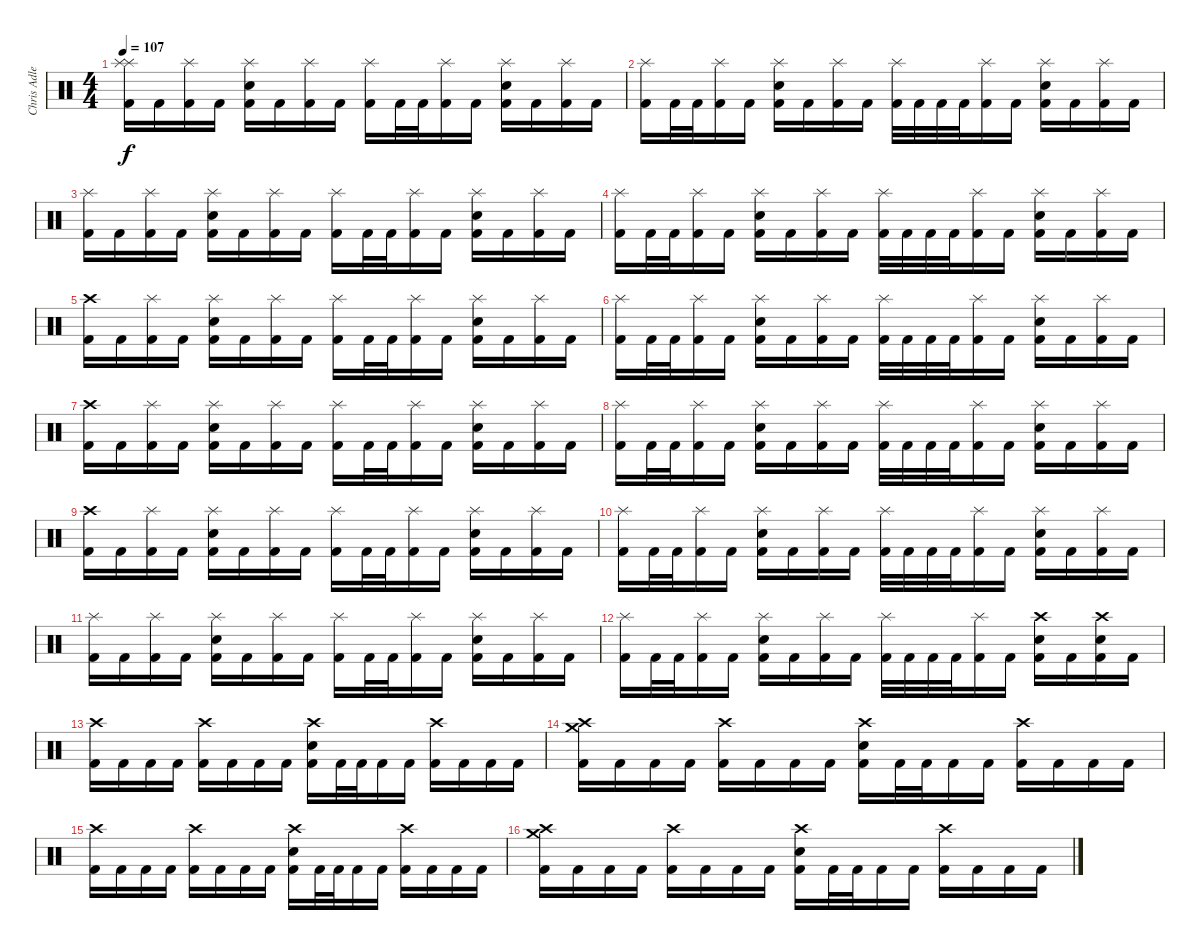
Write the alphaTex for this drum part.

\track ("Chris Adler" "Chris Adle") {instrument percussion}
\staff {score}
\articulation defaults
\ts (4 4)
\tempo 107
\clef neutral
\ks c
("Kick (hit) 2" "Splash (hit)" "Splash (hit)").16{dy f} "Kick (hit) 2".16 ("Kick (hit) 2" "Splash (hit)").16 "Kick (hit) 2".16 ("Kick (hit) 2" "Electric Snare (hit)" "Splash (hit)").16 "Kick (hit) 2".16 ("Kick (hit) 2" "Splash (hit)").16 "Kick (hit) 2".16 ("Kick (hit) 2" "Splash (hit)").16 "Kick (hit) 2".32 "Kick (hit) 2".32 ("Kick (hit) 2" "Splash (hit)").16 "Kick (hit) 2".16 ("Kick (hit) 2" "Electric Snare (hit)" "Splash (hit)").16 "Kick (hit) 2".16 ("Kick (hit) 2" "Splash (hit)").16 "Kick (hit) 2".16 |
("Kick (hit) 2" "Splash (hit)").16 "Kick (hit) 2".32 "Kick (hit) 2".32 ("Kick (hit) 2" "Splash (hit)").16 "Kick (hit) 2".16 ("Kick (hit) 2" "Electric Snare (hit)" "Splash (hit)").16 "Kick (hit) 2".16 ("Kick (hit) 2" "Splash (hit)").16 "Kick (hit) 2".16 ("Kick (hit) 2" "Splash (hit)").32 "Kick (hit) 2".32 "Kick (hit) 2".32 "Kick (hit) 2".32 ("Kick (hit) 2" "Splash (hit)").16 "Kick (hit) 2".16 ("Kick (hit) 2" "Electric Snare (hit)" "Splash (hit)").16 "Kick (hit) 2".16 ("Kick (hit) 2" "Splash (hit)").16 "Kick (hit) 2".16 |
("Kick (hit) 2" "Splash (hit)").16 "Kick (hit) 2".16 ("Kick (hit) 2" "Splash (hit)").16 "Kick (hit) 2".16 ("Kick (hit) 2" "Electric Snare (hit)" "Splash (hit)").16 "Kick (hit) 2".16 ("Kick (hit) 2" "Splash (hit)").16 "Kick (hit) 2".16 ("Kick (hit) 2" "Splash (hit)").16 "Kick (hit) 2".32 "Kick (hit) 2".32 ("Kick (hit) 2" "Splash (hit)").16 "Kick (hit) 2".16 ("Kick (hit) 2" "Electric Snare (hit)" "Splash (hit)").16 "Kick (hit) 2".16 ("Kick (hit) 2" "Splash (hit)").16 "Kick (hit) 2".16 |
("Kick (hit) 2" "Splash (hit)").16 "Kick (hit) 2".32 "Kick (hit) 2".32 ("Kick (hit) 2" "Splash (hit)").16 "Kick (hit) 2".16 ("Kick (hit) 2" "Electric Snare (hit)" "Splash (hit)").16 "Kick (hit) 2".16 ("Kick (hit) 2" "Splash (hit)").16 "Kick (hit) 2".16 ("Kick (hit) 2" "Splash (hit)").32 "Kick (hit) 2".32 "Kick (hit) 2".32 "Kick (hit) 2".32 ("Kick (hit) 2" "Splash (hit)").16 "Kick (hit) 2".16 ("Kick (hit) 2" "Electric Snare (hit)" "Splash (hit)").16 "Kick (hit) 2".16 ("Kick (hit) 2" "Splash (hit)").16 "Kick (hit) 2".16 |
("Kick (hit) 2" "Crash high (hit)").16 "Kick (hit) 2".16 ("Kick (hit) 2" "Splash (hit)").16 "Kick (hit) 2".16 ("Kick (hit) 2" "Electric Snare (hit)" "Splash (hit)").16 "Kick (hit) 2".16 ("Kick (hit) 2" "Splash (hit)").16 "Kick (hit) 2".16 ("Kick (hit) 2" "Splash (hit)").16 "Kick (hit) 2".32 "Kick (hit) 2".32 ("Kick (hit) 2" "Splash (hit)").16 "Kick (hit) 2".16 ("Kick (hit) 2" "Electric Snare (hit)" "Splash (hit)").16 "Kick (hit) 2".16 ("Kick (hit) 2" "Splash (hit)").16 "Kick (hit) 2".16 |
("Kick (hit) 2" "Splash (hit)").16 "Kick (hit) 2".32 "Kick (hit) 2".32 ("Kick (hit) 2" "Splash (hit)").16 "Kick (hit) 2".16 ("Kick (hit) 2" "Electric Snare (hit)" "Splash (hit)").16 "Kick (hit) 2".16 ("Kick (hit) 2" "Splash (hit)").16 "Kick (hit) 2".16 ("Kick (hit) 2" "Splash (hit)").32 "Kick (hit) 2".32 "Kick (hit) 2".32 "Kick (hit) 2".32 ("Kick (hit) 2" "Splash (hit)").16 "Kick (hit) 2".16 ("Kick (hit) 2" "Electric Snare (hit)" "Splash (hit)").16 "Kick (hit) 2".16 ("Kick (hit) 2" "Splash (hit)").16 "Kick (hit) 2".16 |
("Kick (hit) 2" "Crash high (hit)").16 "Kick (hit) 2".16 ("Kick (hit) 2" "Splash (hit)").16 "Kick (hit) 2".16 ("Kick (hit) 2" "Electric Snare (hit)" "Splash (hit)").16 "Kick (hit) 2".16 ("Kick (hit) 2" "Splash (hit)").16 "Kick (hit) 2".16 ("Kick (hit) 2" "Splash (hit)").16 "Kick (hit) 2".32 "Kick (hit) 2".32 ("Kick (hit) 2" "Splash (hit)").16 "Kick (hit) 2".16 ("Kick (hit) 2" "Electric Snare (hit)" "Splash (hit)").16 "Kick (hit) 2".16 ("Kick (hit) 2" "Splash (hit)").16 "Kick (hit) 2".16 |
("Kick (hit) 2" "Splash (hit)").16 "Kick (hit) 2".32 "Kick (hit) 2".32 ("Kick (hit) 2" "Splash (hit)").16 "Kick (hit) 2".16 ("Kick (hit) 2" "Electric Snare (hit)" "Splash (hit)").16 "Kick (hit) 2".16 ("Kick (hit) 2" "Splash (hit)").16 "Kick (hit) 2".16 ("Kick (hit) 2" "Splash (hit)").32 "Kick (hit) 2".32 "Kick (hit) 2".32 "Kick (hit) 2".32 ("Kick (hit) 2" "Splash (hit)").16 "Kick (hit) 2".16 ("Kick (hit) 2" "Electric Snare (hit)" "Splash (hit)").16 "Kick (hit) 2".16 ("Kick (hit) 2" "Splash (hit)").16 "Kick (hit) 2".16 |
("Kick (hit) 2" "Crash high (hit)").16 "Kick (hit) 2".16 ("Kick (hit) 2" "Splash (hit)").16 "Kick (hit) 2".16 ("Kick (hit) 2" "Electric Snare (hit)" "Splash (hit)").16 "Kick (hit) 2".16 ("Kick (hit) 2" "Splash (hit)").16 "Kick (hit) 2".16 ("Kick (hit) 2" "Splash (hit)").16 "Kick (hit) 2".32 "Kick (hit) 2".32 ("Kick (hit) 2" "Splash (hit)").16 "Kick (hit) 2".16 ("Kick (hit) 2" "Electric Snare (hit)" "Splash (hit)").16 "Kick (hit) 2".16 ("Kick (hit) 2" "Splash (hit)").16 "Kick (hit) 2".16 |
("Kick (hit) 2" "Splash (hit)").16 "Kick (hit) 2".32 "Kick (hit) 2".32 ("Kick (hit) 2" "Splash (hit)").16 "Kick (hit) 2".16 ("Kick (hit) 2" "Electric Snare (hit)" "Splash (hit)").16 "Kick (hit) 2".16 ("Kick (hit) 2" "Splash (hit)").16 "Kick (hit) 2".16 ("Kick (hit) 2" "Splash (hit)").32 "Kick (hit) 2".32 "Kick (hit) 2".32 "Kick (hit) 2".32 ("Kick (hit) 2" "Splash (hit)").16 "Kick (hit) 2".16 ("Kick (hit) 2" "Electric Snare (hit)" "Splash (hit)").16 "Kick (hit) 2".16 ("Kick (hit) 2" "Splash (hit)").16 "Kick (hit) 2".16 |
("Kick (hit) 2" "Splash (hit)").16 "Kick (hit) 2".16 ("Kick (hit) 2" "Splash (hit)").16 "Kick (hit) 2".16 ("Kick (hit) 2" "Electric Snare (hit)" "Splash (hit)").16 "Kick (hit) 2".16 ("Kick (hit) 2" "Splash (hit)").16 "Kick (hit) 2".16 ("Kick (hit) 2" "Splash (hit)").16 "Kick (hit) 2".32 "Kick (hit) 2".32 ("Kick (hit) 2" "Splash (hit)").16 "Kick (hit) 2".16 ("Kick (hit) 2" "Electric Snare (hit)" "Splash (hit)").16 "Kick (hit) 2".16 ("Kick (hit) 2" "Splash (hit)").16 "Kick (hit) 2".16 |
("Kick (hit) 2" "Splash (hit)").16 "Kick (hit) 2".32 "Kick (hit) 2".32 ("Kick (hit) 2" "Splash (hit)").16 "Kick (hit) 2".16 ("Kick (hit) 2" "Electric Snare (hit)" "Splash (hit)").16 "Kick (hit) 2".16 ("Kick (hit) 2" "Splash (hit)").16 "Kick (hit) 2".16 ("Kick (hit) 2" "Splash (hit)").32 "Kick (hit) 2".32 "Kick (hit) 2".32 "Kick (hit) 2".32 ("Kick (hit) 2" "Splash (hit)").16 "Kick (hit) 2".16 ("Kick (hit) 2" "Electric Snare (hit)" "Crash high (hit)").16 "Kick (hit) 2".16 ("Kick (hit) 2" "Electric Snare (hit)" "Crash high (hit)").16 "Kick (hit) 2".16 |
("Kick (hit) 2" "Crash high (hit)").16 "Kick (hit) 2".16 "Kick (hit) 2".16 "Kick (hit) 2".16 ("Kick (hit) 2" "Crash high (hit)").16 "Kick (hit) 2".16 "Kick (hit) 2".16 "Kick (hit) 2".16 ("Kick (hit) 2" "Electric Snare (hit)" "Crash high (hit)").16 "Kick (hit) 2".32 "Kick (hit) 2".32 "Kick (hit) 2".16 "Kick (hit) 2".16 ("Kick (hit) 2" "Crash high (hit)").16 "Kick (hit) 2".16 "Kick (hit) 2".16 "Kick (hit) 2".16 |
("Kick (hit) 2" "Crash medium (hit)" "Crash high (hit)").16 "Kick (hit) 2".16 "Kick (hit) 2".16 "Kick (hit) 2".16 ("Kick (hit) 2" "Crash high (hit)").16 "Kick (hit) 2".16 "Kick (hit) 2".16 "Kick (hit) 2".16 ("Kick (hit) 2" "Electric Snare (hit)" "Crash high (hit)").16 "Kick (hit) 2".32 "Kick (hit) 2".32 "Kick (hit) 2".16 "Kick (hit) 2".16 ("Kick (hit) 2" "Crash high (hit)").16 "Kick (hit) 2".16 "Kick (hit) 2".16 "Kick (hit) 2".16 |
("Kick (hit) 2" "Crash high (hit)").16 "Kick (hit) 2".16 "Kick (hit) 2".16 "Kick (hit) 2".16 ("Kick (hit) 2" "Crash high (hit)").16 "Kick (hit) 2".16 "Kick (hit) 2".16 "Kick (hit) 2".16 ("Kick (hit) 2" "Electric Snare (hit)" "Crash high (hit)").16 "Kick (hit) 2".32 "Kick (hit) 2".32 "Kick (hit) 2".16 "Kick (hit) 2".16 ("Kick (hit) 2" "Crash high (hit)").16 "Kick (hit) 2".16 "Kick (hit) 2".16 "Kick (hit) 2".16 |
("Kick (hit) 2" "Crash medium (hit)" "Crash high (hit)").16 "Kick (hit) 2".16 "Kick (hit) 2".16 "Kick (hit) 2".16 ("Kick (hit) 2" "Crash high (hit)").16 "Kick (hit) 2".16 "Kick (hit) 2".16 "Kick (hit) 2".16 ("Kick (hit) 2" "Electric Snare (hit)" "Crash high (hit)").16 "Kick (hit) 2".32 "Kick (hit) 2".32 "Kick (hit) 2".16 "Kick (hit) 2".16 ("Kick (hit) 2" "Crash high (hit)").16 "Kick (hit) 2".16 "Kick (hit) 2".16 "Kick (hit) 2".16
